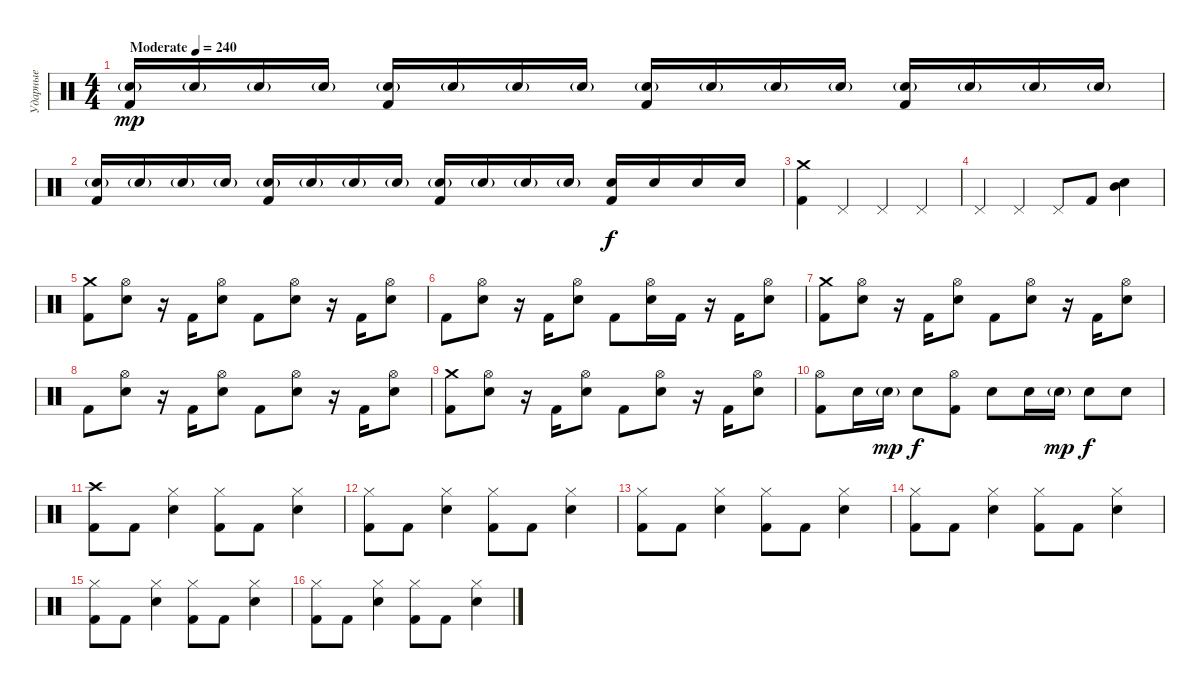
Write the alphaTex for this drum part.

\track ("Ударные" "Ударные") {instrument percussion}
\staff {score}
\articulation defaults
\ts (4 4)
\tempo (240 "Moderate")
\clef neutral
\ks c
("Electric Snare (hit)"{g} "Kick (hit) 2").16{dy mp} "Electric Snare (hit)"{g}.16 "Electric Snare (hit)"{g}.16 "Electric Snare (hit)"{g}.16 ("Electric Snare (hit)"{g} "Kick (hit) 2").16 "Electric Snare (hit)"{g}.16 "Electric Snare (hit)"{g}.16 "Electric Snare (hit)"{g}.16 ("Electric Snare (hit)"{g} "Kick (hit) 2").16 "Electric Snare (hit)"{g}.16 "Electric Snare (hit)"{g}.16 "Electric Snare (hit)"{g}.16 ("Electric Snare (hit)"{g} "Kick (hit) 2").16 "Electric Snare (hit)"{g}.16 "Electric Snare (hit)"{g}.16 "Electric Snare (hit)"{g}.16 |
("Electric Snare (hit)"{g} "Kick (hit) 2").16 "Electric Snare (hit)"{g}.16 "Electric Snare (hit)"{g}.16 "Electric Snare (hit)"{g}.16 ("Electric Snare (hit)"{g} "Kick (hit) 2").16 "Electric Snare (hit)"{g}.16 "Electric Snare (hit)"{g}.16 "Electric Snare (hit)"{g}.16 ("Electric Snare (hit)"{g} "Kick (hit) 2").16 "Electric Snare (hit)"{g}.16 "Electric Snare (hit)"{g}.16 "Electric Snare (hit)"{g}.16 ("Electric Snare (hit)" "Kick (hit) 2").16{dy f} "Electric Snare (hit)".16 "Electric Snare (hit)".16 "Electric Snare (hit)".16 |
("Kick (hit) 2" "Crash medium (hit)").4 "Pedal Hi-Hat (hit)".4 "Pedal Hi-Hat (hit)".4 "Pedal Hi-Hat (hit)".4 |
"Pedal Hi-Hat (hit)".4 "Pedal Hi-Hat (hit)".4 "Pedal Hi-Hat (hit)".8 "Kick (hit) 2".8 ("Electric Snare (hit)" "Mid Tom (hit)").4 |
("Kick (hit) 2" "Crash medium (hit)").8 ("Electric Snare (hit)" "Hi-Hat (open)").8 r.16 "Kick (hit) 2".16 ("Electric Snare (hit)" "Hi-Hat (open)").8 "Kick (hit) 2".8 ("Electric Snare (hit)" "Hi-Hat (open)").8 r.16 "Kick (hit) 2".16 ("Electric Snare (hit)" "Hi-Hat (open)").8 |
"Kick (hit) 2".8 ("Electric Snare (hit)" "Hi-Hat (open)").8 r.16 "Kick (hit) 2".16 ("Electric Snare (hit)" "Hi-Hat (open)").8 "Kick (hit) 2".8 ("Electric Snare (hit)" "Hi-Hat (open)").16 "Kick (hit) 2".16 r.16 "Kick (hit) 2".16 ("Electric Snare (hit)" "Hi-Hat (open)").8 |
("Kick (hit) 2" "Crash medium (hit)").8 ("Electric Snare (hit)" "Hi-Hat (open)").8 r.16 "Kick (hit) 2".16 ("Electric Snare (hit)" "Hi-Hat (open)").8 "Kick (hit) 2".8 ("Electric Snare (hit)" "Hi-Hat (open)").8 r.16 "Kick (hit) 2".16 ("Electric Snare (hit)" "Hi-Hat (open)").8 |
"Kick (hit) 2".8 ("Electric Snare (hit)" "Hi-Hat (open)").8 r.16 "Kick (hit) 2".16 ("Electric Snare (hit)" "Hi-Hat (open)").8 "Kick (hit) 2".8 ("Electric Snare (hit)" "Hi-Hat (open)").8 r.16 "Kick (hit) 2".16 ("Electric Snare (hit)" "Hi-Hat (open)").8 |
("Kick (hit) 2" "Crash medium (hit)").8 ("Electric Snare (hit)" "Hi-Hat (open)").8 r.16 "Kick (hit) 2".16 ("Electric Snare (hit)" "Hi-Hat (open)").8 "Kick (hit) 2".8 ("Electric Snare (hit)" "Hi-Hat (open)").8 r.16 "Kick (hit) 2".16 ("Electric Snare (hit)" "Hi-Hat (open)").8 |
("Hi-Hat (open)" "Kick (hit) 2").8 "Electric Snare (hit)".16 "Electric Snare (hit)"{g}.16{dy mp} "Electric Snare (hit)".8{dy f} ("Hi-Hat (open)" "Kick (hit) 2").8 "Electric Snare (hit)".8 "Electric Snare (hit)".16 "Electric Snare (hit)"{g}.16{dy mp} "Electric Snare (hit)".8{dy f} "Electric Snare (hit)".8 |
("Kick (hit) 2" "Crash high (hit)").8 "Kick (hit) 2".8 ("Electric Snare (hit)" "Hi-Hat (closed)").4 ("Kick (hit) 2" "Hi-Hat (closed)").8 "Kick (hit) 2".8 ("Electric Snare (hit)" "Hi-Hat (closed)").4 |
("Kick (hit) 2" "Hi-Hat (closed)").8 "Kick (hit) 2".8 ("Electric Snare (hit)" "Hi-Hat (closed)").4 ("Kick (hit) 2" "Hi-Hat (closed)").8 "Kick (hit) 2".8 ("Electric Snare (hit)" "Hi-Hat (closed)").4 |
("Kick (hit) 2" "Hi-Hat (closed)").8 "Kick (hit) 2".8 ("Electric Snare (hit)" "Hi-Hat (closed)").4 ("Kick (hit) 2" "Hi-Hat (closed)").8 "Kick (hit) 2".8 ("Electric Snare (hit)" "Hi-Hat (closed)").4 |
("Kick (hit) 2" "Hi-Hat (closed)").8 "Kick (hit) 2".8 ("Electric Snare (hit)" "Hi-Hat (closed)").4 ("Kick (hit) 2" "Hi-Hat (closed)").8 "Kick (hit) 2".8 ("Electric Snare (hit)" "Hi-Hat (closed)").4 |
("Kick (hit) 2" "Hi-Hat (closed)").8 "Kick (hit) 2".8 ("Electric Snare (hit)" "Hi-Hat (closed)").4 ("Kick (hit) 2" "Hi-Hat (closed)").8 "Kick (hit) 2".8 ("Electric Snare (hit)" "Hi-Hat (closed)").4 |
("Kick (hit) 2" "Hi-Hat (closed)").8 "Kick (hit) 2".8 ("Electric Snare (hit)" "Hi-Hat (closed)").4 ("Kick (hit) 2" "Hi-Hat (closed)").8 "Kick (hit) 2".8 ("Electric Snare (hit)" "Hi-Hat (closed)").4
